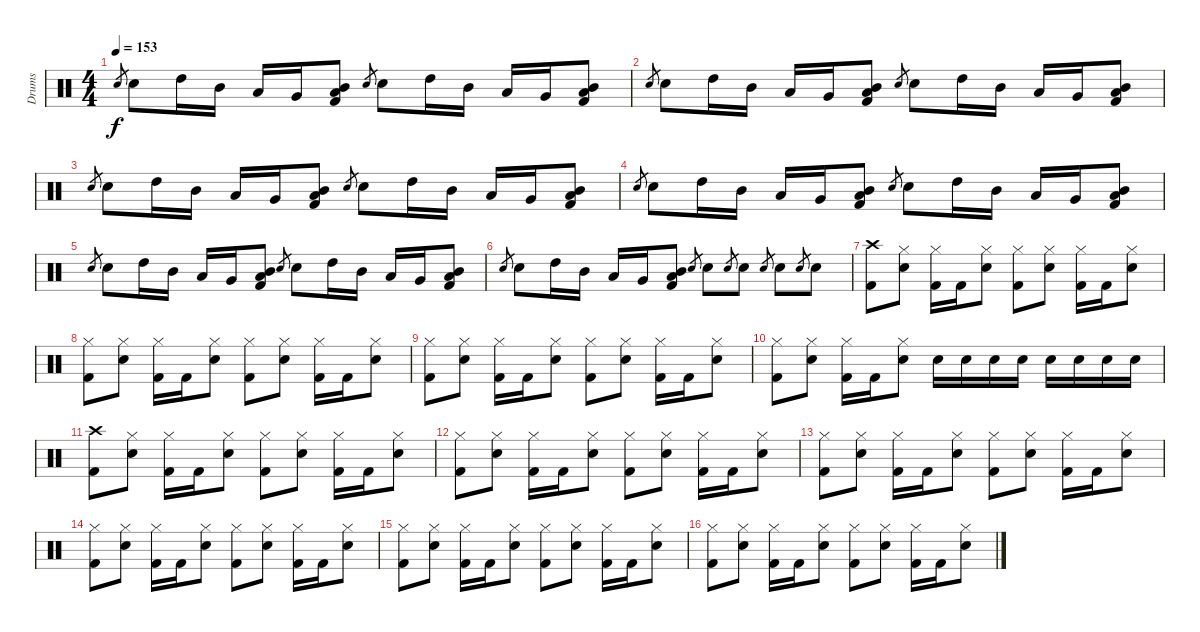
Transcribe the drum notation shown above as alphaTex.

\track ("Drums" "Drums") {instrument percussion}
\staff {score}
\articulation defaults
\ts (4 4)
\tempo 153
\clef neutral
\ks c "Snare (hit) 2".8{gr dy f} "Snare (hit) 2".8 "High Tom (hit)".16 "Mid Tom (hit)".16 "Low Tom (hit)".16 "Very Low Tom (hit)".16
("Mid Tom (hit)" "Low Tom (hit)" "Kick (hit) 2").8 "Snare (hit) 2".8{gr} "Snare (hit) 2".8 "High Tom (hit)".16 "Mid Tom (hit)".16 "Low Tom (hit)".16 "Very Low Tom (hit)".16 ("Mid Tom (hit)" "Low Tom (hit)" "Kick (hit) 2").8 |
"Snare (hit) 2".8{gr} "Snare (hit) 2".8 "High Tom (hit)".16 "Mid Tom (hit)".16 "Low Tom (hit)".16 "Very Low Tom (hit)".16 ("Mid Tom (hit)" "Low Tom (hit)" "Kick (hit) 2").8 "Snare (hit) 2".8{gr} "Snare (hit) 2".8 "High Tom (hit)".16 "Mid Tom (hit)".16 "Low Tom (hit)".16 "Very Low Tom (hit)".16 ("Mid Tom (hit)" "Low Tom (hit)" "Kick (hit) 2").8 |
"Snare (hit) 2".8{gr} "Snare (hit) 2".8 "High Tom (hit)".16 "Mid Tom (hit)".16 "Low Tom (hit)".16 "Very Low Tom (hit)".16 ("Mid Tom (hit)" "Low Tom (hit)" "Kick (hit) 2").8 "Snare (hit) 2".8{gr} "Snare (hit) 2".8 "High Tom (hit)".16 "Mid Tom (hit)".16 "Low Tom (hit)".16 "Very Low Tom (hit)".16 ("Mid Tom (hit)" "Low Tom (hit)" "Kick (hit) 2").8 |
"Snare (hit) 2".8{gr} "Snare (hit) 2".8 "High Tom (hit)".16 "Mid Tom (hit)".16 "Low Tom (hit)".16 "Very Low Tom (hit)".16 ("Mid Tom (hit)" "Low Tom (hit)" "Kick (hit) 2").8 "Snare (hit) 2".8{gr} "Snare (hit) 2".8 "High Tom (hit)".16 "Mid Tom (hit)".16 "Low Tom (hit)".16 "Very Low Tom (hit)".16 ("Mid Tom (hit)" "Low Tom (hit)" "Kick (hit) 2").8 |
"Snare (hit) 2".8{gr} "Snare (hit) 2".8 "High Tom (hit)".16 "Mid Tom (hit)".16 "Low Tom (hit)".16 "Very Low Tom (hit)".16 ("Mid Tom (hit)" "Low Tom (hit)" "Kick (hit) 2").8 "Snare (hit) 2".8{gr} "Snare (hit) 2".8 "High Tom (hit)".16 "Mid Tom (hit)".16 "Low Tom (hit)".16 "Very Low Tom (hit)".16 ("Mid Tom (hit)" "Low Tom (hit)" "Kick (hit) 2").8 |
"Snare (hit) 2".8{gr} "Snare (hit) 2".8 "High Tom (hit)".16 "Mid Tom (hit)".16 "Low Tom (hit)".16 "Very Low Tom (hit)".16 ("Mid Tom (hit)" "Low Tom (hit)" "Kick (hit) 2").8 "Snare (hit) 2".8{gr} "Snare (hit) 2".8 "Snare (hit) 2".8{gr} "Snare (hit) 2".8 "Snare (hit) 2".8{gr} "Snare (hit) 2".8 "Snare (hit) 2".8{gr} "Snare (hit) 2".8 |
("Crash high (hit)" "Kick (hit) 2").8 ("Hi-Hat (closed)" "Snare (hit) 2").8 ("Hi-Hat (closed)" "Kick (hit) 2").16 "Kick (hit) 2".16 ("Hi-Hat (closed)" "Snare (hit) 2").8 ("Hi-Hat (closed)" "Kick (hit) 2").8 ("Hi-Hat (closed)" "Snare (hit) 2").8 ("Hi-Hat (closed)" "Kick (hit) 2").16 "Kick (hit) 2".16 ("Hi-Hat (closed)" "Snare (hit) 2").8 |
("Hi-Hat (closed)" "Kick (hit) 2").8 ("Hi-Hat (closed)" "Snare (hit) 2").8 ("Hi-Hat (closed)" "Kick (hit) 2").16 "Kick (hit) 2".16 ("Hi-Hat (closed)" "Snare (hit) 2").8 ("Hi-Hat (closed)" "Kick (hit) 2").8 ("Hi-Hat (closed)" "Snare (hit) 2").8 ("Hi-Hat (closed)" "Kick (hit) 2").16 "Kick (hit) 2".16 ("Hi-Hat (closed)" "Snare (hit) 2").8 |
("Hi-Hat (closed)" "Kick (hit) 2").8 ("Hi-Hat (closed)" "Snare (hit) 2").8 ("Hi-Hat (closed)" "Kick (hit) 2").16 "Kick (hit) 2".16 ("Hi-Hat (closed)" "Snare (hit) 2").8 ("Hi-Hat (closed)" "Kick (hit) 2").8 ("Hi-Hat (closed)" "Snare (hit) 2").8 ("Hi-Hat (closed)" "Kick (hit) 2").16 "Kick (hit) 2".16 ("Hi-Hat (closed)" "Snare (hit) 2").8 |
("Hi-Hat (closed)" "Kick (hit) 2").8 ("Hi-Hat (closed)" "Snare (hit) 2").8 ("Hi-Hat (closed)" "Kick (hit) 2").16 "Kick (hit) 2".16 ("Hi-Hat (closed)" "Snare (hit) 2").8 "Snare (hit) 2".16 "Snare (hit) 2".16 "Snare (hit) 2".16 "Snare (hit) 2".16 "Snare (hit) 2".16 "Snare (hit) 2".16 "Snare (hit) 2".16 "Snare (hit) 2".16 |
("Crash high (hit)" "Kick (hit) 2").8 ("Hi-Hat (closed)" "Snare (hit) 2").8 ("Hi-Hat (closed)" "Kick (hit) 2").16 "Kick (hit) 2".16 ("Hi-Hat (closed)" "Snare (hit) 2").8 ("Hi-Hat (closed)" "Kick (hit) 2").8 ("Hi-Hat (closed)" "Snare (hit) 2").8 ("Hi-Hat (closed)" "Kick (hit) 2").16 "Kick (hit) 2".16 ("Hi-Hat (closed)" "Snare (hit) 2").8 |
("Hi-Hat (closed)" "Kick (hit) 2").8 ("Hi-Hat (closed)" "Snare (hit) 2").8 ("Hi-Hat (closed)" "Kick (hit) 2").16 "Kick (hit) 2".16 ("Hi-Hat (closed)" "Snare (hit) 2").8 ("Hi-Hat (closed)" "Kick (hit) 2").8 ("Hi-Hat (closed)" "Snare (hit) 2").8 ("Hi-Hat (closed)" "Kick (hit) 2").16 "Kick (hit) 2".16 ("Hi-Hat (closed)" "Snare (hit) 2").8 |
("Hi-Hat (closed)" "Kick (hit) 2").8 ("Hi-Hat (closed)" "Snare (hit) 2").8 ("Hi-Hat (closed)" "Kick (hit) 2").16 "Kick (hit) 2".16 ("Hi-Hat (closed)" "Snare (hit) 2").8 ("Hi-Hat (closed)" "Kick (hit) 2").8 ("Hi-Hat (closed)" "Snare (hit) 2").8 ("Hi-Hat (closed)" "Kick (hit) 2").16 "Kick (hit) 2".16 ("Hi-Hat (closed)" "Snare (hit) 2").8 |
("Hi-Hat (closed)" "Kick (hit) 2").8 ("Hi-Hat (closed)" "Snare (hit) 2").8 ("Hi-Hat (closed)" "Kick (hit) 2").16 "Kick (hit) 2".16 ("Hi-Hat (closed)" "Snare (hit) 2").8 ("Hi-Hat (closed)" "Kick (hit) 2").8 ("Hi-Hat (closed)" "Snare (hit) 2").8 ("Hi-Hat (closed)" "Kick (hit) 2").16 "Kick (hit) 2".16 ("Hi-Hat (closed)" "Snare (hit) 2").8 |
("Hi-Hat (closed)" "Kick (hit) 2").8 ("Hi-Hat (closed)" "Snare (hit) 2").8 ("Hi-Hat (closed)" "Kick (hit) 2").16 "Kick (hit) 2".16 ("Hi-Hat (closed)" "Snare (hit) 2").8 ("Hi-Hat (closed)" "Kick (hit) 2").8 ("Hi-Hat (closed)" "Snare (hit) 2").8 ("Hi-Hat (closed)" "Kick (hit) 2").16 "Kick (hit) 2".16 ("Hi-Hat (closed)" "Snare (hit) 2").8 |
("Hi-Hat (closed)" "Kick (hit) 2").8 ("Hi-Hat (closed)" "Snare (hit) 2").8 ("Hi-Hat (closed)" "Kick (hit) 2").16 "Kick (hit) 2".16 ("Hi-Hat (closed)" "Snare (hit) 2").8 ("Hi-Hat (closed)" "Kick (hit) 2").8 ("Hi-Hat (closed)" "Snare (hit) 2").8 ("Hi-Hat (closed)" "Kick (hit) 2").16 "Kick (hit) 2".16 ("Hi-Hat (closed)" "Snare (hit) 2").8
